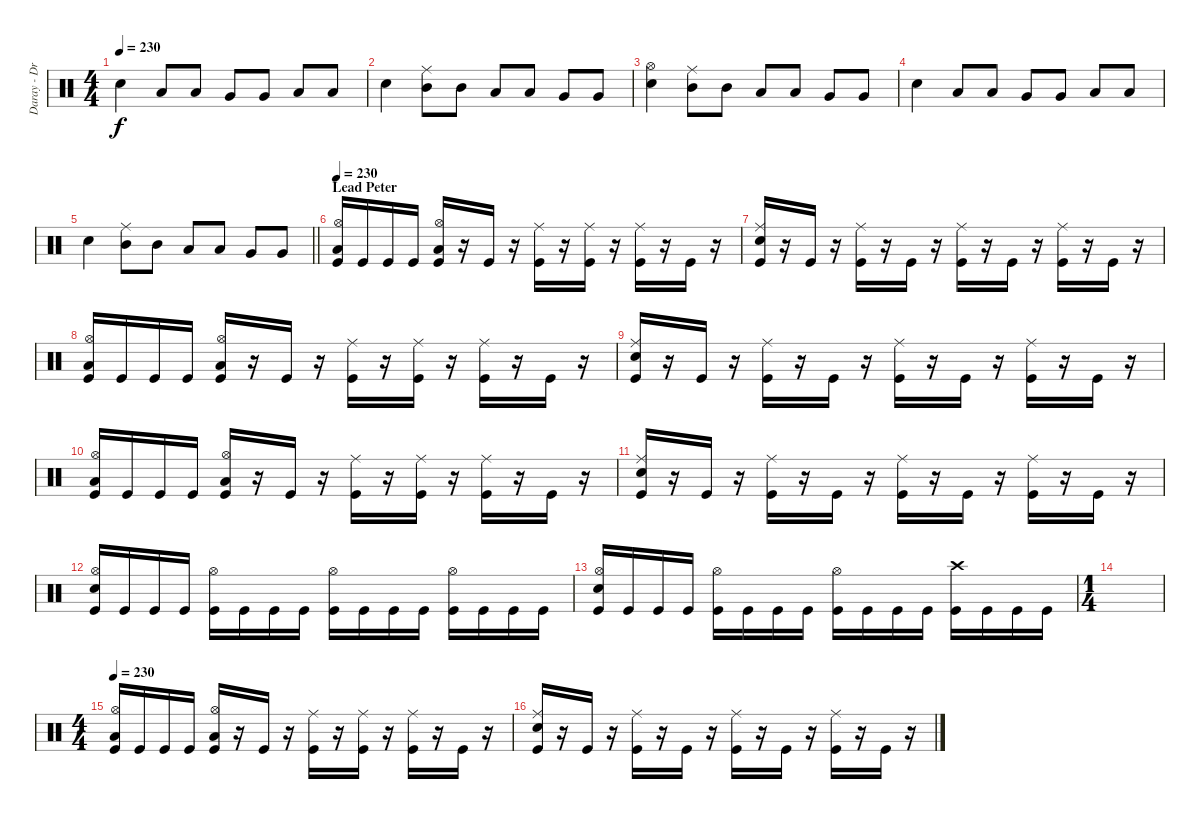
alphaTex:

\track ("Daray - Drums" "Daray - Dr") {instrument percussion}
\staff {score}
\articulation defaults
\ts (4 4)
\tempo 230
\clef neutral
\ks c "Electric Snare (hit)".4{dy f} "Low Tom (hit)".8 "Low Tom (hit)".8 "Very Low Tom (hit)".8 "Very Low Tom (hit)".8 "Low Floor Tom (hit)".8 "Low Floor Tom (hit)".8
|
"Electric Snare (hit)".4 ("Ride (middle)" "Mid Tom (hit)").8 "Mid Tom (hit)".8 "Low Tom (hit)".8 "Low Tom (hit)".8 "Very Low Tom (hit)".8 "Very Low Tom (hit)".8 |
("Hi-Hat (open)" "Electric Snare (hit)").4 ("Ride (middle)" "Mid Tom (hit)").8 "Mid Tom (hit)".8 "Low Tom (hit)".8 "Low Tom (hit)".8 "Very Low Tom (hit)".8 "Very Low Tom (hit)".8 |
"Electric Snare (hit)".4 "Low Tom (hit)".8 "Low Tom (hit)".8 "Very Low Tom (hit)".8 "Very Low Tom (hit)".8 "Low Floor Tom (hit)".8 "Low Floor Tom (hit)".8 |
\barLineRight lightlight "Electric Snare (hit)".4
("Ride (middle)" "Mid Tom (hit)").8 "Mid Tom (hit)".8 "Low Tom (hit)".8 "Low Tom (hit)".8 "Very Low Tom (hit)".8 "Very Low Tom (hit)".8 |
\section ("" "Lead Peter")
\tempo 230
("Hi-Hat (open)" "Low Floor Tom (hit)" "Kick (hit)").16 "Kick (hit)".16 "Kick (hit)".16 "Kick (hit)".16 ("Hi-Hat (open)" "Low Floor Tom (hit)" "Kick (hit)").16 r.16 "Kick (hit)".16 r.16 ("Ride (middle)" "Kick (hit)").16 r.16 ("Ride (middle)" "Kick (hit)").16 r.16 ("Ride (middle)" "Kick (hit)").16 r.16 "Kick (hit)".16 r.16 |
("Ride (middle)" "Electric Snare (hit)" "Kick (hit)").16 r.16 "Kick (hit)".16 r.16 ("Ride (middle)" "Kick (hit)").16 r.16 "Kick (hit)".16 r.16 ("Ride (middle)" "Kick (hit)").16 r.16 "Kick (hit)".16 r.16 ("Ride (middle)" "Kick (hit)").16 r.16 "Kick (hit)".16 r.16 |
("Hi-Hat (open)" "Low Floor Tom (hit)" "Kick (hit)").16 "Kick (hit)".16 "Kick (hit)".16 "Kick (hit)".16 ("Hi-Hat (open)" "Low Floor Tom (hit)" "Kick (hit)").16 r.16 "Kick (hit)".16 r.16 ("Ride (middle)" "Kick (hit)").16 r.16 ("Ride (middle)" "Kick (hit)").16 r.16 ("Ride (middle)" "Kick (hit)").16 r.16 "Kick (hit)".16 r.16 |
("Ride (middle)" "Electric Snare (hit)" "Kick (hit)").16 r.16 "Kick (hit)".16 r.16 ("Ride (middle)" "Kick (hit)").16 r.16 "Kick (hit)".16 r.16 ("Ride (middle)" "Kick (hit)").16 r.16 "Kick (hit)".16 r.16 ("Ride (middle)" "Kick (hit)").16 r.16 "Kick (hit)".16 r.16 |
("Hi-Hat (open)" "Low Floor Tom (hit)" "Kick (hit)").16 "Kick (hit)".16 "Kick (hit)".16 "Kick (hit)".16 ("Hi-Hat (open)" "Low Floor Tom (hit)" "Kick (hit)").16 r.16 "Kick (hit)".16 r.16 ("Ride (middle)" "Kick (hit)").16 r.16 ("Ride (middle)" "Kick (hit)").16 r.16 ("Ride (middle)" "Kick (hit)").16 r.16 "Kick (hit)".16 r.16 |
("Ride (middle)" "Electric Snare (hit)" "Kick (hit)").16 r.16 "Kick (hit)".16 r.16 ("Ride (middle)" "Kick (hit)").16 r.16 "Kick (hit)".16 r.16 ("Ride (middle)" "Kick (hit)").16 r.16 "Kick (hit)".16 r.16 ("Ride (middle)" "Kick (hit)").16 r.16 "Kick (hit)".16 r.16 |
("Hi-Hat (open)" "Electric Snare (hit)" "Kick (hit)").16 "Kick (hit)".16 "Kick (hit)".16 "Kick (hit)".16 ("Hi-Hat (open)" "Kick (hit)").16 "Kick (hit)".16 "Kick (hit)".16 "Kick (hit)".16 ("Hi-Hat (open)" "Kick (hit)").16 "Kick (hit)".16 "Kick (hit)".16 "Kick (hit)".16 ("Hi-Hat (open)" "Kick (hit)").16 "Kick (hit)".16 "Kick (hit)".16 "Kick (hit)".16 |
("Hi-Hat (open)" "Electric Snare (hit)" "Kick (hit)").16 "Kick (hit)".16 "Kick (hit)".16 "Kick (hit)".16 ("Hi-Hat (open)" "Kick (hit)").16 "Kick (hit)".16 "Kick (hit)".16 "Kick (hit)".16 ("Hi-Hat (open)" "Kick (hit)").16 "Kick (hit)".16 "Kick (hit)".16 "Kick (hit)".16 ("Crash high (hit)" "Kick (hit)").16 "Kick (hit)".16 "Kick (hit)".16 "Kick (hit)".16 |
\ts (1 4)
|
\ts (4 4)
\tempo 230
("Hi-Hat (open)" "Low Floor Tom (hit)" "Kick (hit)").16 "Kick (hit)".16 "Kick (hit)".16 "Kick (hit)".16 ("Hi-Hat (open)" "Low Floor Tom (hit)" "Kick (hit)").16 r.16 "Kick (hit)".16 r.16 ("Ride (middle)" "Kick (hit)").16 r.16 ("Ride (middle)" "Kick (hit)").16 r.16 ("Ride (middle)" "Kick (hit)").16 r.16 "Kick (hit)".16 r.16 |
("Ride (middle)" "Electric Snare (hit)" "Kick (hit)").16 r.16 "Kick (hit)".16 r.16 ("Ride (middle)" "Kick (hit)").16 r.16 "Kick (hit)".16 r.16 ("Ride (middle)" "Kick (hit)").16 r.16 "Kick (hit)".16 r.16 ("Ride (middle)" "Kick (hit)").16 r.16 "Kick (hit)".16 r.16
